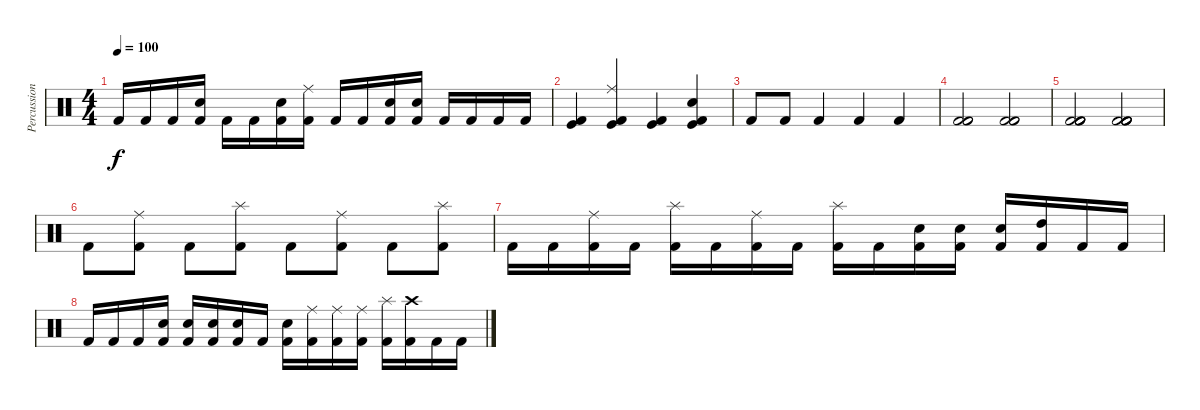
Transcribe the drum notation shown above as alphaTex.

\track ("Percussion" "Percussion") {instrument percussion}
\staff {score}
\articulation defaults
\ts (4 4)
\tempo 100
\clef neutral
\ks c "Kick (hit) 2".16{dy f} "Kick (hit) 2".16 "Kick (hit) 2".16
("Snare (hit) 2" "Kick (hit) 2").16 "Kick (hit) 2".16 "Kick (hit) 2".16 ("Snare (hit) 2" "Kick (hit) 2").16 ("Ride (middle)" "Kick (hit) 2").16 "Kick (hit) 2".16 "Kick (hit) 2".16 ("Snare (hit) 2" "Kick (hit) 2").16 ("Snare (hit) 2" "Kick (hit) 2").16 "Kick (hit) 2".16 "Kick (hit) 2".16 "Kick (hit) 2".16 "Kick (hit) 2".16 |
("Kick (hit)" "Kick (hit) 2").4 ("Ride (middle)" "Kick (hit) 2" "Kick (hit)").4 ("Kick (hit) 2" "Kick (hit)").4 ("Snare (hit) 2" "Kick (hit) 2" "Kick (hit)").4 |
"Kick (hit) 2".8 "Kick (hit) 2".8 "Kick (hit) 2".4 "Kick (hit) 2".4 "Kick (hit) 2".4 |
("Kick (hit) 2" "Kick (hit) 2" "Kick (hit) 2").2 ("Kick (hit) 2" "Kick (hit) 2" "Kick (hit) 2").2 |
("Kick (hit) 2" "Kick (hit) 2" "Kick (hit) 2" "Kick (hit) 2" "Kick (hit) 2").2 ("Kick (hit) 2" "Kick (hit) 2" "Kick (hit) 2" "Kick (hit) 2" "Kick (hit) 2").2 |
"Kick (hit) 2".8 ("Ride (middle)" "Kick (hit) 2").8 "Kick (hit) 2".8 ("Splash (hit)" "Kick (hit) 2").8 "Kick (hit) 2".8 ("Ride (middle)" "Kick (hit) 2").8 "Kick (hit) 2".8 ("Splash (hit)" "Kick (hit) 2").8 |
"Kick (hit) 2".16 "Kick (hit) 2".16 ("Ride (middle)" "Kick (hit) 2").16 "Kick (hit) 2".16 ("Splash (hit)" "Kick (hit) 2").16 "Kick (hit) 2".16 ("Ride (middle)" "Kick (hit) 2").16 "Kick (hit) 2".16 ("Splash (hit)" "Kick (hit) 2").16 "Kick (hit) 2".16 ("Snare (hit) 2" "Kick (hit) 2").16 ("Snare (hit) 2" "Kick (hit) 2").16 ("Snare (hit) 2" "Kick (hit) 2").16 ("High Tom (hit)" "Kick (hit) 2").16 "Kick (hit) 2".16 "Kick (hit) 2".16 |
"Kick (hit) 2".16 "Kick (hit) 2".16 "Kick (hit) 2".16 ("Snare (hit) 2" "Kick (hit) 2").16 ("Snare (hit) 2" "Kick (hit) 2").16 ("Snare (hit) 2" "Kick (hit) 2").16 ("Snare (hit) 2" "Kick (hit) 2").16 "Kick (hit) 2".16 ("Snare (hit) 2" "Kick (hit) 2").16 ("Ride (middle)" "Kick (hit) 2").16 ("Ride (middle)" "Kick (hit) 2").16 ("Ride (middle)" "Kick (hit) 2").16 ("Splash (hit)" "Kick (hit) 2").16 ("Crash high (hit)" "Kick (hit) 2").16 "Kick (hit) 2".16 "Kick (hit) 2".16
